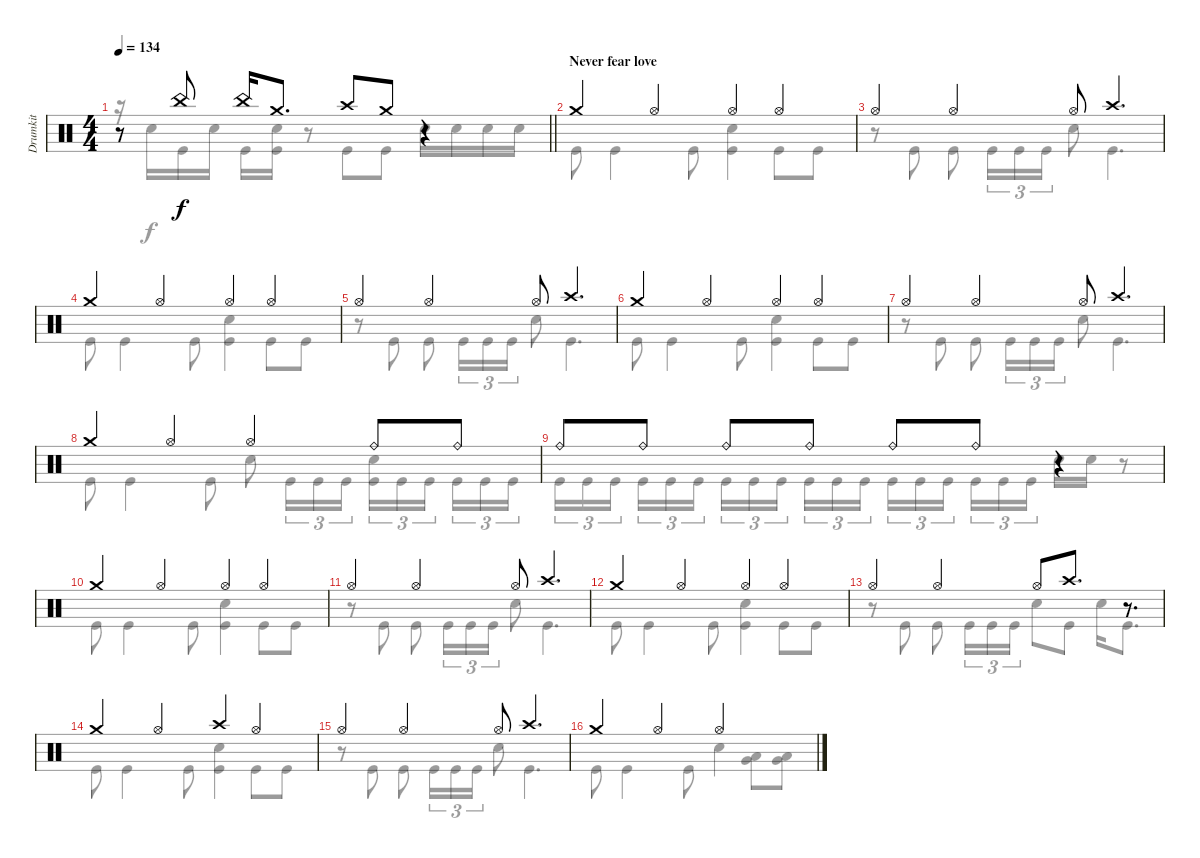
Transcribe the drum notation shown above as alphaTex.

\track ("Drumkit" "Drumkit") {instrument percussion}
\staff {score}
\articulation defaults
\voice
\ts (4 4)
\tempo 134
\clef neutral
\barLineRight lightlight
\ks c
r.8{dy f} "China (hit)".8 "China (hit)".16 "Crash medium (hit)".8{d} "Crash high (hit)".8 "Crash medium (hit)".8 r.4 |
\section ("" "Never fear love")
"Crash medium (hit)".4 "Hi-Hat (open)".4 "Hi-Hat (open)".4 "Hi-Hat (open)".4 |
"Hi-Hat (open)".4 "Hi-Hat (open)".4 "Hi-Hat (open)".8 "Crash high (hit)".4{d} |
"Crash medium (hit)".4 "Hi-Hat (open)".4 "Hi-Hat (open)".4 "Hi-Hat (open)".4 |
"Hi-Hat (open)".4 "Hi-Hat (open)".4 "Hi-Hat (open)".8 "Crash high (hit)".4{d} |
"Crash medium (hit)".4 "Hi-Hat (open)".4 "Hi-Hat (open)".4 "Hi-Hat (open)".4 |
"Hi-Hat (open)".4 "Hi-Hat (open)".4 "Hi-Hat (open)".8 "Crash high (hit)".4{d} |
"Crash medium (hit)".4 "Hi-Hat (open)".4 "Hi-Hat (open)".4 "Ride (bell)".8 "Ride (bell)".8 |
"Ride (bell)".8 "Ride (bell)".8 "Ride (bell)".8 "Ride (bell)".8 "Ride (bell)".8 "Ride (bell)".8 r.4 |
"Crash medium (hit)".4 "Hi-Hat (open)".4 "Hi-Hat (open)".4 "Hi-Hat (open)".4 |
"Hi-Hat (open)".4 "Hi-Hat (open)".4 "Hi-Hat (open)".8 "Crash high (hit)".4{d} |
"Crash medium (hit)".4 "Hi-Hat (open)".4 "Hi-Hat (open)".4 "Hi-Hat (open)".4 |
"Hi-Hat (open)".4 "Hi-Hat (open)".4 "Hi-Hat (open)".8 "Crash high (hit)".8{d} r.8{d} |
"Crash medium (hit)".4 "Hi-Hat (open)".4 "Crash high (hit)".4 "Hi-Hat (open)".4 |
"Hi-Hat (open)".4 "Hi-Hat (open)".4 "Hi-Hat (open)".8 "Crash high (hit)".4{d} |
"Crash medium (hit)".4 "Hi-Hat (open)".4 "Hi-Hat (open)".2
\voice
\clef neutral
\ottava regular
\simile none
\barLineRight lightlight
\ks c
r.16{dy f} "Snare (hit) 2".16 "Kick (hit)".16 "Snare (hit) 2".16 "Kick (hit)".16 ("Snare (hit) 2" "Kick (hit)").16 r.8 "Kick (hit)".8 "Kick (hit)".8 "Snare (hit) 2".16 "Snare (hit) 2".16 "Snare (hit) 2".16 "Snare (hit) 2".16 |
"Kick (hit)".8 "Kick (hit)".4 "Kick (hit)".8 ("Snare (hit) 2" "Kick (hit)").4 "Kick (hit)".8 "Kick (hit)".8 |
r.8 "Kick (hit)".8 "Kick (hit)".8 "Kick (hit)".16{tu (3 2)} "Kick (hit)".16{tu (3 2)} "Kick (hit)".16{tu (3 2)} "Snare (hit) 2".8 "Kick (hit)".4{d} |
"Kick (hit)".8 "Kick (hit)".4 "Kick (hit)".8 ("Snare (hit) 2" "Kick (hit)").4 "Kick (hit)".8 "Kick (hit)".8 |
r.8 "Kick (hit)".8 "Kick (hit)".8 "Kick (hit)".16{tu (3 2)} "Kick (hit)".16{tu (3 2)} "Kick (hit)".16{tu (3 2)} "Snare (hit) 2".8 "Kick (hit)".4{d} |
"Kick (hit)".8 "Kick (hit)".4 "Kick (hit)".8 ("Snare (hit) 2" "Kick (hit)").4 "Kick (hit)".8 "Kick (hit)".8 |
r.8 "Kick (hit)".8 "Kick (hit)".8 "Kick (hit)".16{tu (3 2)} "Kick (hit)".16{tu (3 2)} "Kick (hit)".16{tu (3 2)} "Snare (hit) 2".8 "Kick (hit)".4{d} |
"Kick (hit)".8 "Kick (hit)".4 "Kick (hit)".8 "Snare (hit) 2".8 "Kick (hit)".16{tu (3 2)} "Kick (hit)".16{tu (3 2)} "Kick (hit)".16{tu (3 2)} ("Snare (hit) 2" "Kick (hit)").16{tu (3 2)} "Kick (hit)".16{tu (3 2)} "Kick (hit)".16{tu (3 2) beam splitsecondary} "Kick (hit)".16{tu (3 2)} "Kick (hit)".16{tu (3 2)} "Kick (hit)".16{tu (3 2)} |
"Kick (hit)".16{tu (3 2)} "Kick (hit)".16{tu (3 2)} "Kick (hit)".16{tu (3 2) beam splitsecondary} "Kick (hit)".16{tu (3 2)} "Kick (hit)".16{tu (3 2)} "Kick (hit)".16{tu (3 2)} "Kick (hit)".16{tu (3 2)} "Kick (hit)".16{tu (3 2)} "Kick (hit)".16{tu (3 2) beam splitsecondary} "Kick (hit)".16{tu (3 2)} "Kick (hit)".16{tu (3 2)} "Kick (hit)".16{tu (3 2)} "Kick (hit)".16{tu (3 2)} "Kick (hit)".16{tu (3 2)} "Kick (hit)".16{tu (3 2) beam splitsecondary} "Kick (hit)".16{tu (3 2)} "Kick (hit)".16{tu (3 2)} "Kick (hit)".16{tu (3 2)} "Snare (hit) 2".16 "Snare (hit) 2".16 r.8 |
"Kick (hit)".8 "Kick (hit)".4 "Kick (hit)".8 ("Snare (hit) 2" "Kick (hit)").4 "Kick (hit)".8 "Kick (hit)".8 |
r.8 "Kick (hit)".8 "Kick (hit)".8 "Kick (hit)".16{tu (3 2)} "Kick (hit)".16{tu (3 2)} "Kick (hit)".16{tu (3 2)} "Snare (hit) 2".8 "Kick (hit)".4{d} |
"Kick (hit)".8 "Kick (hit)".4 "Kick (hit)".8 ("Snare (hit) 2" "Kick (hit)").4 "Kick (hit)".8 "Kick (hit)".8 |
r.8 "Kick (hit)".8 "Kick (hit)".8 "Kick (hit)".16{tu (3 2)} "Kick (hit)".16{tu (3 2)} "Kick (hit)".16{tu (3 2)} "Snare (hit) 2".8 "Kick (hit)".8 "Snare (hit) 2".16 "Kick (hit)".8{d} |
"Kick (hit)".8 "Kick (hit)".4 "Kick (hit)".8 ("Snare (hit) 2" "Kick (hit)").4 "Kick (hit)".8 "Kick (hit)".8 |
r.8 "Kick (hit)".8 "Kick (hit)".8 "Kick (hit)".16{tu (3 2)} "Kick (hit)".16{tu (3 2)} "Kick (hit)".16{tu (3 2)} "Snare (hit) 2".8 "Kick (hit)".4{d} |
"Kick (hit)".8 "Kick (hit)".4 "Kick (hit)".8 "Snare (hit) 2".4 ("Low Tom (hit)" "Very Low Tom (hit)").8 ("Low Tom (hit)" "Very Low Tom (hit)").8
